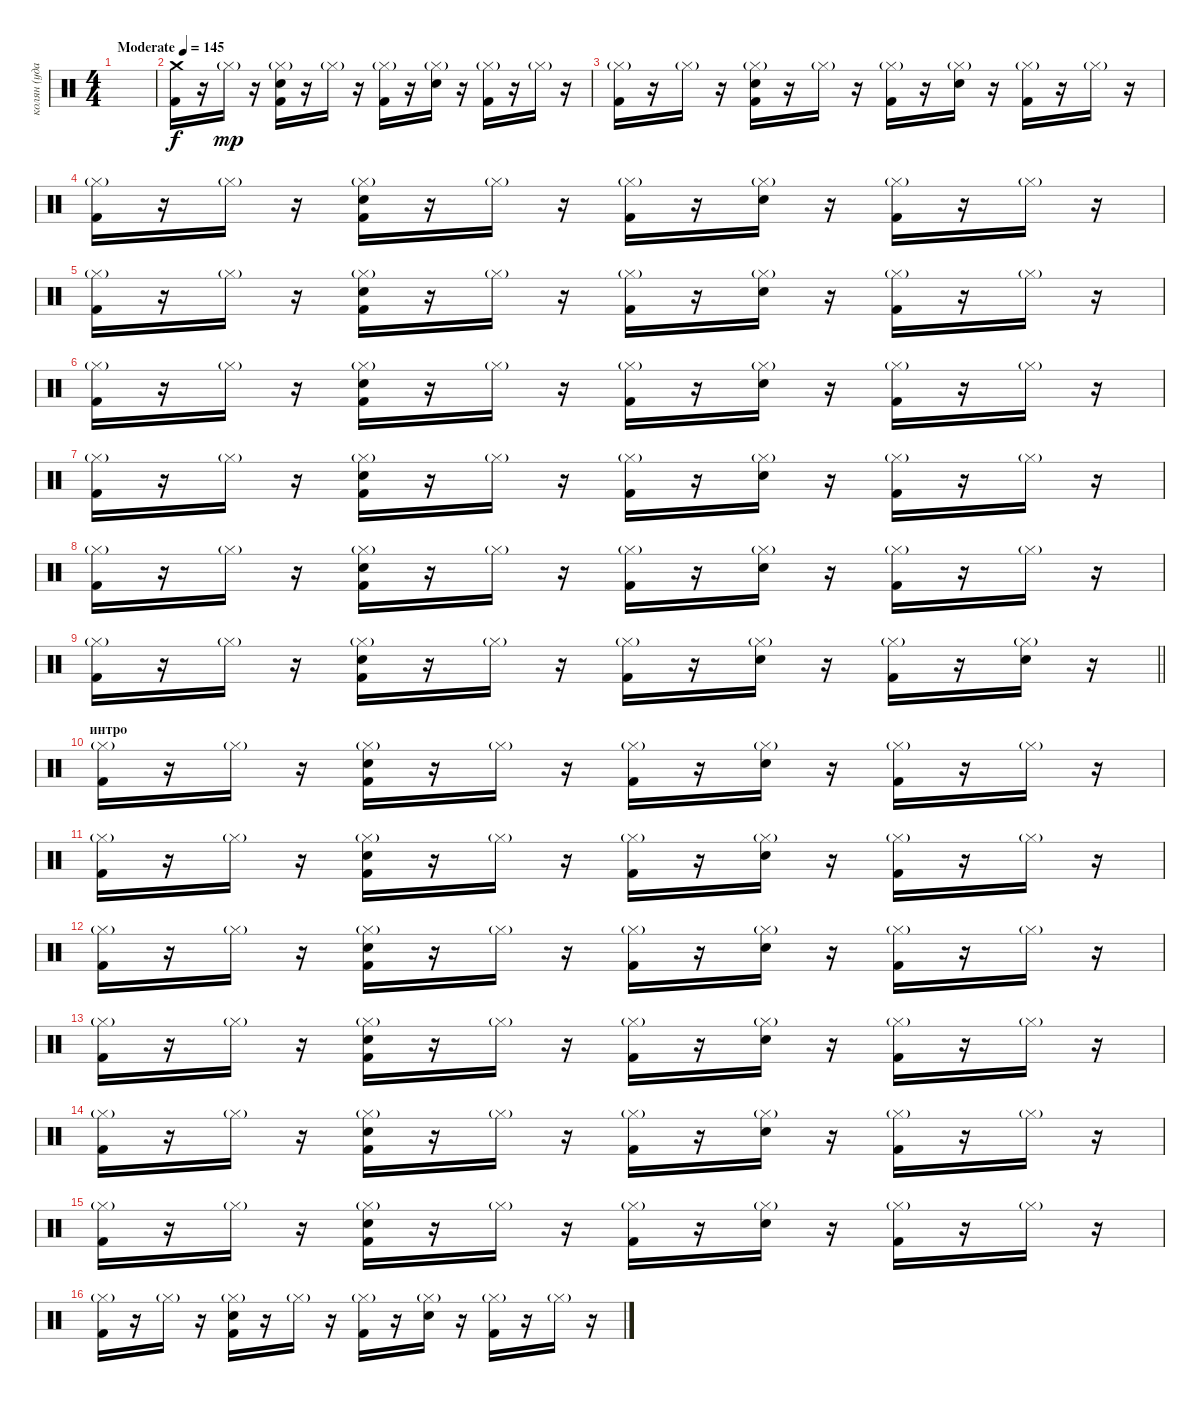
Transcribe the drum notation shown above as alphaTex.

\track ("колян (ударные)" "колян (уда") {instrument percussion}
\staff {score}
\articulation defaults
\ts (4 4)
\tempo (145 "Moderate")
\clef neutral
\ks c
|
("Kick (hit) 2" "Crash medium (hit)").16 r.16 "Hi-Hat (closed)"{g}.16{dy mp} r.16 ("Snare (hit) 2" "Kick (hit) 2" "Hi-Hat (closed)"{g}).16 r.16 "Hi-Hat (closed)"{g}.16 r.16 ("Kick (hit) 2" "Hi-Hat (closed)"{g}).16 r.16 ("Snare (hit) 2" "Hi-Hat (closed)"{g}).16 r.16 ("Kick (hit) 2" "Hi-Hat (closed)"{g}).16 r.16 "Hi-Hat (closed)"{g}.16 r.16 |
("Kick (hit) 2" "Hi-Hat (closed)"{g}).16 r.16 "Hi-Hat (closed)"{g}.16 r.16 ("Snare (hit) 2" "Kick (hit) 2" "Hi-Hat (closed)"{g}).16 r.16 "Hi-Hat (closed)"{g}.16 r.16 ("Kick (hit) 2" "Hi-Hat (closed)"{g}).16 r.16 ("Snare (hit) 2" "Hi-Hat (closed)"{g}).16 r.16 ("Kick (hit) 2" "Hi-Hat (closed)"{g}).16 r.16 "Hi-Hat (closed)"{g}.16 r.16 |
("Kick (hit) 2" "Hi-Hat (closed)"{g}).16 r.16 "Hi-Hat (closed)"{g}.16 r.16 ("Snare (hit) 2" "Kick (hit) 2" "Hi-Hat (closed)"{g}).16 r.16 "Hi-Hat (closed)"{g}.16 r.16 ("Kick (hit) 2" "Hi-Hat (closed)"{g}).16 r.16 ("Snare (hit) 2" "Hi-Hat (closed)"{g}).16 r.16 ("Kick (hit) 2" "Hi-Hat (closed)"{g}).16 r.16 "Hi-Hat (closed)"{g}.16 r.16 |
("Kick (hit) 2" "Hi-Hat (closed)"{g}).16 r.16 "Hi-Hat (closed)"{g}.16 r.16 ("Snare (hit) 2" "Kick (hit) 2" "Hi-Hat (closed)"{g}).16 r.16 "Hi-Hat (closed)"{g}.16 r.16 ("Kick (hit) 2" "Hi-Hat (closed)"{g}).16 r.16 ("Snare (hit) 2" "Hi-Hat (closed)"{g}).16 r.16 ("Kick (hit) 2" "Hi-Hat (closed)"{g}).16 r.16 "Hi-Hat (closed)"{g}.16 r.16 |
("Kick (hit) 2" "Hi-Hat (closed)"{g}).16 r.16 "Hi-Hat (closed)"{g}.16 r.16 ("Snare (hit) 2" "Kick (hit) 2" "Hi-Hat (closed)"{g}).16 r.16 "Hi-Hat (closed)"{g}.16 r.16 ("Kick (hit) 2" "Hi-Hat (closed)"{g}).16 r.16 ("Snare (hit) 2" "Hi-Hat (closed)"{g}).16 r.16 ("Kick (hit) 2" "Hi-Hat (closed)"{g}).16 r.16 "Hi-Hat (closed)"{g}.16 r.16 |
("Kick (hit) 2" "Hi-Hat (closed)"{g}).16 r.16 "Hi-Hat (closed)"{g}.16 r.16 ("Snare (hit) 2" "Kick (hit) 2" "Hi-Hat (closed)"{g}).16 r.16 "Hi-Hat (closed)"{g}.16 r.16 ("Kick (hit) 2" "Hi-Hat (closed)"{g}).16 r.16 ("Snare (hit) 2" "Hi-Hat (closed)"{g}).16 r.16 ("Kick (hit) 2" "Hi-Hat (closed)"{g}).16 r.16 "Hi-Hat (closed)"{g}.16 r.16 |
("Kick (hit) 2" "Hi-Hat (closed)"{g}).16 r.16 "Hi-Hat (closed)"{g}.16 r.16 ("Snare (hit) 2" "Kick (hit) 2" "Hi-Hat (closed)"{g}).16 r.16 "Hi-Hat (closed)"{g}.16 r.16 ("Kick (hit) 2" "Hi-Hat (closed)"{g}).16 r.16 ("Snare (hit) 2" "Hi-Hat (closed)"{g}).16 r.16 ("Kick (hit) 2" "Hi-Hat (closed)"{g}).16 r.16 "Hi-Hat (closed)"{g}.16 r.16 |
\barLineRight lightlight
("Kick (hit) 2" "Hi-Hat (closed)"{g}).16 r.16 "Hi-Hat (closed)"{g}.16 r.16 ("Snare (hit) 2" "Kick (hit) 2" "Hi-Hat (closed)"{g}).16 r.16 "Hi-Hat (closed)"{g}.16 r.16 ("Kick (hit) 2" "Hi-Hat (closed)"{g}).16 r.16 ("Snare (hit) 2" "Hi-Hat (closed)"{g}).16 r.16 ("Kick (hit) 2" "Hi-Hat (closed)"{g}).16 r.16 ("Snare (hit) 2" "Hi-Hat (closed)"{g}).16 r.16 |
\section ("" "интро")
("Kick (hit) 2" "Hi-Hat (closed)"{g}).16 r.16 "Hi-Hat (closed)"{g}.16 r.16 ("Snare (hit) 2" "Kick (hit) 2" "Hi-Hat (closed)"{g}).16 r.16 "Hi-Hat (closed)"{g}.16 r.16 ("Kick (hit) 2" "Hi-Hat (closed)"{g}).16 r.16 ("Snare (hit) 2" "Hi-Hat (closed)"{g}).16 r.16 ("Kick (hit) 2" "Hi-Hat (closed)"{g}).16 r.16 "Hi-Hat (closed)"{g}.16 r.16 |
("Kick (hit) 2" "Hi-Hat (closed)"{g}).16 r.16 "Hi-Hat (closed)"{g}.16 r.16 ("Snare (hit) 2" "Kick (hit) 2" "Hi-Hat (closed)"{g}).16 r.16 "Hi-Hat (closed)"{g}.16 r.16 ("Kick (hit) 2" "Hi-Hat (closed)"{g}).16 r.16 ("Snare (hit) 2" "Hi-Hat (closed)"{g}).16 r.16 ("Kick (hit) 2" "Hi-Hat (closed)"{g}).16 r.16 "Hi-Hat (closed)"{g}.16 r.16 |
("Kick (hit) 2" "Hi-Hat (closed)"{g}).16 r.16 "Hi-Hat (closed)"{g}.16 r.16 ("Snare (hit) 2" "Kick (hit) 2" "Hi-Hat (closed)"{g}).16 r.16 "Hi-Hat (closed)"{g}.16 r.16 ("Kick (hit) 2" "Hi-Hat (closed)"{g}).16 r.16 ("Snare (hit) 2" "Hi-Hat (closed)"{g}).16 r.16 ("Kick (hit) 2" "Hi-Hat (closed)"{g}).16 r.16 "Hi-Hat (closed)"{g}.16 r.16 |
("Kick (hit) 2" "Hi-Hat (closed)"{g}).16 r.16 "Hi-Hat (closed)"{g}.16 r.16 ("Snare (hit) 2" "Kick (hit) 2" "Hi-Hat (closed)"{g}).16 r.16 "Hi-Hat (closed)"{g}.16 r.16 ("Kick (hit) 2" "Hi-Hat (closed)"{g}).16 r.16 ("Snare (hit) 2" "Hi-Hat (closed)"{g}).16 r.16 ("Kick (hit) 2" "Hi-Hat (closed)"{g}).16 r.16 "Hi-Hat (closed)"{g}.16 r.16 |
("Kick (hit) 2" "Hi-Hat (closed)"{g}).16 r.16 "Hi-Hat (closed)"{g}.16 r.16 ("Snare (hit) 2" "Kick (hit) 2" "Hi-Hat (closed)"{g}).16 r.16 "Hi-Hat (closed)"{g}.16 r.16 ("Kick (hit) 2" "Hi-Hat (closed)"{g}).16 r.16 ("Snare (hit) 2" "Hi-Hat (closed)"{g}).16 r.16 ("Kick (hit) 2" "Hi-Hat (closed)"{g}).16 r.16 "Hi-Hat (closed)"{g}.16 r.16 |
("Kick (hit) 2" "Hi-Hat (closed)"{g}).16 r.16 "Hi-Hat (closed)"{g}.16 r.16 ("Snare (hit) 2" "Kick (hit) 2" "Hi-Hat (closed)"{g}).16 r.16 "Hi-Hat (closed)"{g}.16 r.16 ("Kick (hit) 2" "Hi-Hat (closed)"{g}).16 r.16 ("Snare (hit) 2" "Hi-Hat (closed)"{g}).16 r.16 ("Kick (hit) 2" "Hi-Hat (closed)"{g}).16 r.16 "Hi-Hat (closed)"{g}.16 r.16 |
("Kick (hit) 2" "Hi-Hat (closed)"{g}).16 r.16 "Hi-Hat (closed)"{g}.16 r.16 ("Snare (hit) 2" "Kick (hit) 2" "Hi-Hat (closed)"{g}).16 r.16 "Hi-Hat (closed)"{g}.16 r.16 ("Kick (hit) 2" "Hi-Hat (closed)"{g}).16 r.16 ("Snare (hit) 2" "Hi-Hat (closed)"{g}).16 r.16 ("Kick (hit) 2" "Hi-Hat (closed)"{g}).16 r.16 "Hi-Hat (closed)"{g}.16 r.16
